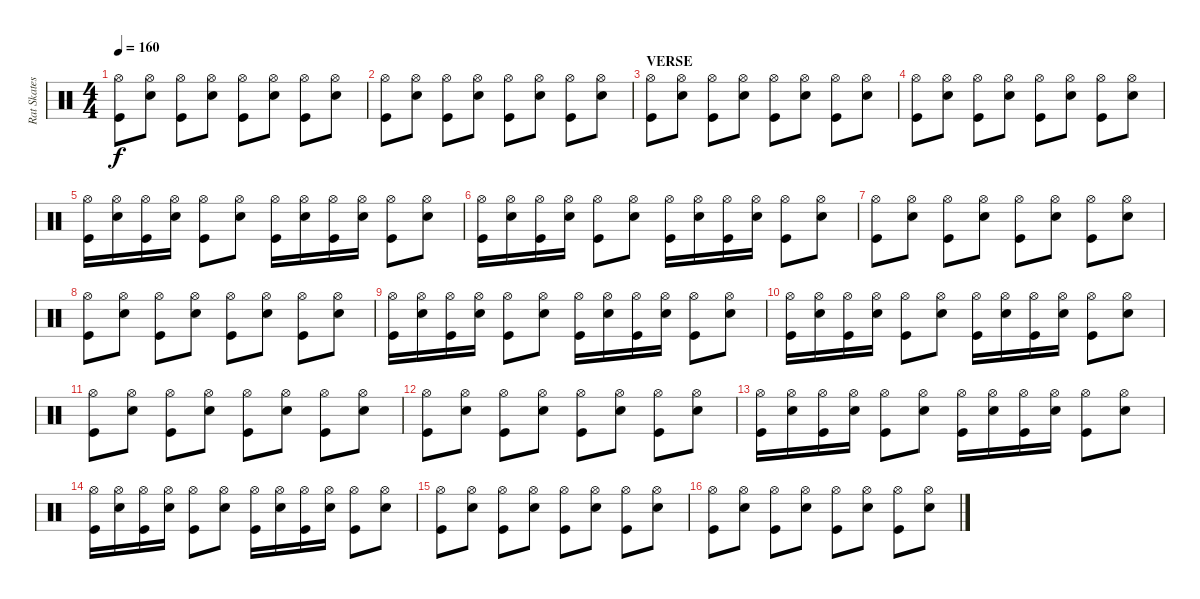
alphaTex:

\track ("Rat Skates" "Rat Skates") {instrument percussion}
\staff {score}
\articulation defaults
\ts (4 4)
\tempo 160
\clef neutral
\ks c
("Hi-Hat (open)" "Kick (hit)").8{dy f} ("Hi-Hat (open)" "Snare (hit) 2").8 ("Hi-Hat (open)" "Kick (hit)").8 ("Hi-Hat (open)" "Snare (hit) 2").8 ("Hi-Hat (open)" "Kick (hit)").8 ("Hi-Hat (open)" "Snare (hit) 2").8 ("Hi-Hat (open)" "Kick (hit)").8 ("Hi-Hat (open)" "Snare (hit) 2").8 |
("Hi-Hat (open)" "Kick (hit)").8 ("Hi-Hat (open)" "Snare (hit) 2").8 ("Hi-Hat (open)" "Kick (hit)").8 ("Hi-Hat (open)" "Snare (hit) 2").8 ("Hi-Hat (open)" "Kick (hit)").8 ("Hi-Hat (open)" "Snare (hit) 2").8 ("Hi-Hat (open)" "Kick (hit)").8 ("Hi-Hat (open)" "Snare (hit) 2").8 |
\section ("" "VERSE")
("Hi-Hat (open)" "Kick (hit)").8 ("Hi-Hat (open)" "Snare (hit) 2").8 ("Hi-Hat (open)" "Kick (hit)").8 ("Hi-Hat (open)" "Snare (hit) 2").8 ("Hi-Hat (open)" "Kick (hit)").8 ("Hi-Hat (open)" "Snare (hit) 2").8 ("Hi-Hat (open)" "Kick (hit)").8 ("Hi-Hat (open)" "Snare (hit) 2").8 |
("Hi-Hat (open)" "Kick (hit)").8 ("Hi-Hat (open)" "Snare (hit) 2").8 ("Hi-Hat (open)" "Kick (hit)").8 ("Hi-Hat (open)" "Snare (hit) 2").8 ("Hi-Hat (open)" "Kick (hit)").8 ("Hi-Hat (open)" "Snare (hit) 2").8 ("Hi-Hat (open)" "Kick (hit)").8 ("Hi-Hat (open)" "Snare (hit) 2").8 |
("Hi-Hat (open)" "Kick (hit)").16 ("Hi-Hat (open)" "Snare (hit) 2").16 ("Hi-Hat (open)" "Kick (hit)").16 ("Hi-Hat (open)" "Snare (hit) 2").16 ("Hi-Hat (open)" "Kick (hit)").8 ("Hi-Hat (open)" "Snare (hit) 2").8 ("Hi-Hat (open)" "Kick (hit)").16 ("Hi-Hat (open)" "Snare (hit) 2").16 ("Hi-Hat (open)" "Kick (hit)").16 ("Hi-Hat (open)" "Snare (hit) 2").16 ("Hi-Hat (open)" "Kick (hit)").8 ("Hi-Hat (open)" "Snare (hit) 2").8 |
("Hi-Hat (open)" "Kick (hit)").16 ("Hi-Hat (open)" "Snare (hit) 2").16 ("Hi-Hat (open)" "Kick (hit)").16 ("Hi-Hat (open)" "Snare (hit) 2").16 ("Hi-Hat (open)" "Kick (hit)").8 ("Hi-Hat (open)" "Snare (hit) 2").8 ("Hi-Hat (open)" "Kick (hit)").16 ("Hi-Hat (open)" "Snare (hit) 2").16 ("Hi-Hat (open)" "Kick (hit)").16 ("Hi-Hat (open)" "Snare (hit) 2").16 ("Hi-Hat (open)" "Kick (hit)").8 ("Hi-Hat (open)" "Snare (hit) 2").8 |
("Hi-Hat (open)" "Kick (hit)").8 ("Hi-Hat (open)" "Snare (hit) 2").8 ("Hi-Hat (open)" "Kick (hit)").8 ("Hi-Hat (open)" "Snare (hit) 2").8 ("Hi-Hat (open)" "Kick (hit)").8 ("Hi-Hat (open)" "Snare (hit) 2").8 ("Hi-Hat (open)" "Kick (hit)").8 ("Hi-Hat (open)" "Snare (hit) 2").8 |
("Hi-Hat (open)" "Kick (hit)").8 ("Hi-Hat (open)" "Snare (hit) 2").8 ("Hi-Hat (open)" "Kick (hit)").8 ("Hi-Hat (open)" "Snare (hit) 2").8 ("Hi-Hat (open)" "Kick (hit)").8 ("Hi-Hat (open)" "Snare (hit) 2").8 ("Hi-Hat (open)" "Kick (hit)").8 ("Hi-Hat (open)" "Snare (hit) 2").8 |
("Hi-Hat (open)" "Kick (hit)").16 ("Hi-Hat (open)" "Snare (hit) 2").16 ("Hi-Hat (open)" "Kick (hit)").16 ("Hi-Hat (open)" "Snare (hit) 2").16 ("Hi-Hat (open)" "Kick (hit)").8 ("Hi-Hat (open)" "Snare (hit) 2").8 ("Hi-Hat (open)" "Kick (hit)").16 ("Hi-Hat (open)" "Snare (hit) 2").16 ("Hi-Hat (open)" "Kick (hit)").16 ("Hi-Hat (open)" "Snare (hit) 2").16 ("Hi-Hat (open)" "Kick (hit)").8 ("Hi-Hat (open)" "Snare (hit) 2").8 |
("Hi-Hat (open)" "Kick (hit)").16 ("Hi-Hat (open)" "Snare (hit) 2").16 ("Hi-Hat (open)" "Kick (hit)").16 ("Hi-Hat (open)" "Snare (hit) 2").16 ("Hi-Hat (open)" "Kick (hit)").8 ("Hi-Hat (open)" "Snare (hit) 2").8 ("Hi-Hat (open)" "Kick (hit)").16 ("Hi-Hat (open)" "Snare (hit) 2").16 ("Hi-Hat (open)" "Kick (hit)").16 ("Hi-Hat (open)" "Snare (hit) 2").16 ("Hi-Hat (open)" "Kick (hit)").8 ("Hi-Hat (open)" "Snare (hit) 2").8 |
("Hi-Hat (open)" "Kick (hit)").8 ("Hi-Hat (open)" "Snare (hit) 2").8 ("Hi-Hat (open)" "Kick (hit)").8 ("Hi-Hat (open)" "Snare (hit) 2").8 ("Hi-Hat (open)" "Kick (hit)").8 ("Hi-Hat (open)" "Snare (hit) 2").8 ("Hi-Hat (open)" "Kick (hit)").8 ("Hi-Hat (open)" "Snare (hit) 2").8 |
("Hi-Hat (open)" "Kick (hit)").8 ("Hi-Hat (open)" "Snare (hit) 2").8 ("Hi-Hat (open)" "Kick (hit)").8 ("Hi-Hat (open)" "Snare (hit) 2").8 ("Hi-Hat (open)" "Kick (hit)").8 ("Hi-Hat (open)" "Snare (hit) 2").8 ("Hi-Hat (open)" "Kick (hit)").8 ("Hi-Hat (open)" "Snare (hit) 2").8 |
("Hi-Hat (open)" "Kick (hit)").16 ("Hi-Hat (open)" "Snare (hit) 2").16 ("Hi-Hat (open)" "Kick (hit)").16 ("Hi-Hat (open)" "Snare (hit) 2").16 ("Hi-Hat (open)" "Kick (hit)").8 ("Hi-Hat (open)" "Snare (hit) 2").8 ("Hi-Hat (open)" "Kick (hit)").16 ("Hi-Hat (open)" "Snare (hit) 2").16 ("Hi-Hat (open)" "Kick (hit)").16 ("Hi-Hat (open)" "Snare (hit) 2").16 ("Hi-Hat (open)" "Kick (hit)").8 ("Hi-Hat (open)" "Snare (hit) 2").8 |
("Hi-Hat (open)" "Kick (hit)").16 ("Hi-Hat (open)" "Snare (hit) 2").16 ("Hi-Hat (open)" "Kick (hit)").16 ("Hi-Hat (open)" "Snare (hit) 2").16 ("Hi-Hat (open)" "Kick (hit)").8 ("Hi-Hat (open)" "Snare (hit) 2").8 ("Hi-Hat (open)" "Kick (hit)").16 ("Hi-Hat (open)" "Snare (hit) 2").16 ("Hi-Hat (open)" "Kick (hit)").16 ("Hi-Hat (open)" "Snare (hit) 2").16 ("Hi-Hat (open)" "Kick (hit)").8 ("Hi-Hat (open)" "Snare (hit) 2").8 |
("Hi-Hat (open)" "Kick (hit)").8 ("Hi-Hat (open)" "Snare (hit) 2").8 ("Hi-Hat (open)" "Kick (hit)").8 ("Hi-Hat (open)" "Snare (hit) 2").8 ("Hi-Hat (open)" "Kick (hit)").8 ("Hi-Hat (open)" "Snare (hit) 2").8 ("Hi-Hat (open)" "Kick (hit)").8 ("Hi-Hat (open)" "Snare (hit) 2").8 |
("Hi-Hat (open)" "Kick (hit)").8 ("Hi-Hat (open)" "Snare (hit) 2").8 ("Hi-Hat (open)" "Kick (hit)").8 ("Hi-Hat (open)" "Snare (hit) 2").8 ("Hi-Hat (open)" "Kick (hit)").8 ("Hi-Hat (open)" "Snare (hit) 2").8 ("Hi-Hat (open)" "Kick (hit)").8 ("Hi-Hat (open)" "Snare (hit) 2").8
